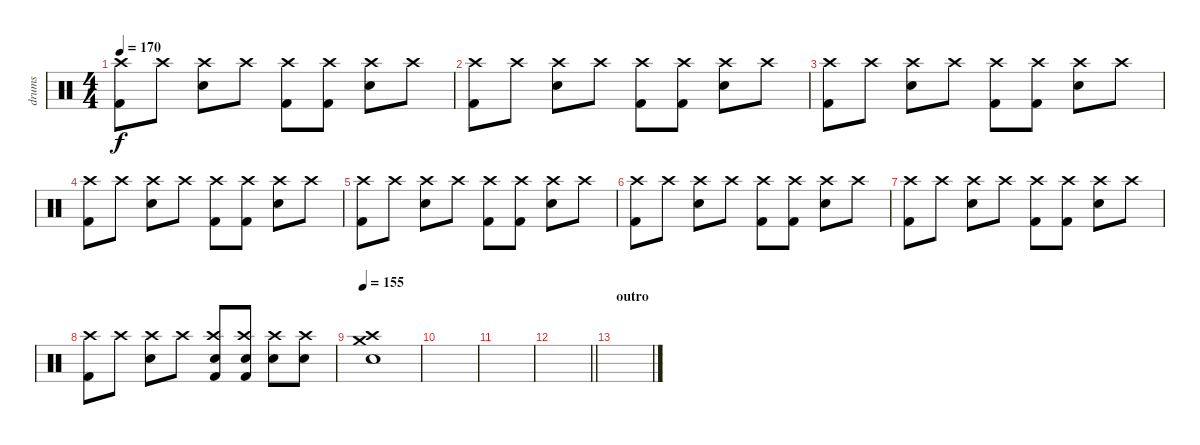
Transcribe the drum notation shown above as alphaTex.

\track ("drums" "drums") {instrument percussion}
\staff {score}
\articulation defaults
\ts (4 4)
\tempo 170
\clef neutral
\ks c
("Kick (hit) 2" "Crash high (hit)").8{dy f} "Crash high (hit)".8 ("Electric Snare (hit)" "Crash high (hit)").8 "Crash high (hit)".8 ("Kick (hit) 2" "Crash high (hit)").8 ("Kick (hit) 2" "Crash high (hit)").8 ("Electric Snare (hit)" "Crash high (hit)").8 "Crash high (hit)".8 |
("Kick (hit) 2" "Crash high (hit)").8 "Crash high (hit)".8 ("Electric Snare (hit)" "Crash high (hit)").8 "Crash high (hit)".8 ("Kick (hit) 2" "Crash high (hit)").8 ("Kick (hit) 2" "Crash high (hit)").8 ("Electric Snare (hit)" "Crash high (hit)").8 "Crash high (hit)".8 |
("Kick (hit) 2" "Crash high (hit)").8 "Crash high (hit)".8 ("Electric Snare (hit)" "Crash high (hit)").8 "Crash high (hit)".8 ("Kick (hit) 2" "Crash high (hit)").8 ("Kick (hit) 2" "Crash high (hit)").8 ("Electric Snare (hit)" "Crash high (hit)").8 "Crash high (hit)".8 |
("Kick (hit) 2" "Crash high (hit)").8 "Crash high (hit)".8 ("Electric Snare (hit)" "Crash high (hit)").8 "Crash high (hit)".8 ("Kick (hit) 2" "Crash high (hit)").8 ("Kick (hit) 2" "Crash high (hit)").8 ("Electric Snare (hit)" "Crash high (hit)").8 "Crash high (hit)".8 |
("Kick (hit) 2" "Crash high (hit)").8 "Crash high (hit)".8 ("Electric Snare (hit)" "Crash high (hit)").8 "Crash high (hit)".8 ("Kick (hit) 2" "Crash high (hit)").8 ("Kick (hit) 2" "Crash high (hit)").8 ("Electric Snare (hit)" "Crash high (hit)").8 "Crash high (hit)".8 |
("Kick (hit) 2" "Crash high (hit)").8 "Crash high (hit)".8 ("Electric Snare (hit)" "Crash high (hit)").8 "Crash high (hit)".8 ("Kick (hit) 2" "Crash high (hit)").8 ("Kick (hit) 2" "Crash high (hit)").8 ("Electric Snare (hit)" "Crash high (hit)").8 "Crash high (hit)".8 |
("Kick (hit) 2" "Crash high (hit)").8 "Crash high (hit)".8 ("Electric Snare (hit)" "Crash high (hit)").8 "Crash high (hit)".8 ("Kick (hit) 2" "Crash high (hit)").8 ("Kick (hit) 2" "Crash high (hit)").8 ("Electric Snare (hit)" "Crash high (hit)").8 "Crash high (hit)".8 |
("Kick (hit) 2" "Crash high (hit)").8 "Crash high (hit)".8 ("Electric Snare (hit)" "Crash high (hit)").8 "Crash high (hit)".8 ("Kick (hit) 2" "Electric Snare (hit)" "Crash high (hit)").8 ("Kick (hit) 2" "Electric Snare (hit)" "Crash high (hit)").8 ("Electric Snare (hit)" "Crash high (hit)").8 ("Electric Snare (hit)" "Crash high (hit)").8 |
\tempo 155
("Electric Snare (hit)" "Crash medium (hit)" "Crash high (hit)").1 |
|
|
\barLineRight lightlight
|
\section ("" "outro")
